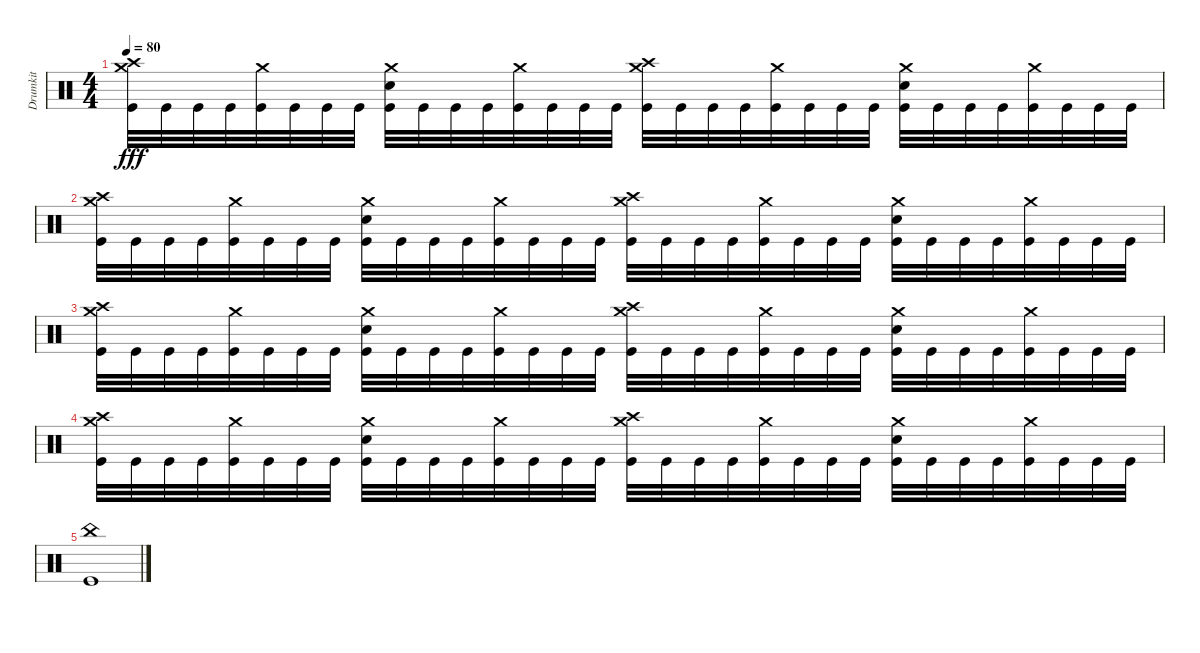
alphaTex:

\track ("Drumkit" "Drumkit") {instrument percussion}
\staff {score}
\articulation defaults
\ts (4 4)
\tempo 80
\clef neutral
\ks c
("Kick (hit)" "Crash medium (hit)" "Crash high (hit)").32{dy fff} "Kick (hit)".32 "Kick (hit)".32 "Kick (hit)".32 ("Kick (hit)" "Crash medium (hit)").32 "Kick (hit)".32 "Kick (hit)".32 "Kick (hit)".32 ("Kick (hit)" "Crash medium (hit)" "Snare (hit) 2").32 "Kick (hit)".32 "Kick (hit)".32 "Kick (hit)".32 ("Kick (hit)" "Crash medium (hit)").32 "Kick (hit)".32 "Kick (hit)".32 "Kick (hit)".32 ("Kick (hit)" "Crash medium (hit)" "Crash high (hit)").32 "Kick (hit)".32 "Kick (hit)".32 "Kick (hit)".32 ("Kick (hit)" "Crash medium (hit)").32 "Kick (hit)".32 "Kick (hit)".32 "Kick (hit)".32 ("Kick (hit)" "Crash medium (hit)" "Snare (hit) 2").32 "Kick (hit)".32 "Kick (hit)".32 "Kick (hit)".32 ("Kick (hit)" "Crash medium (hit)").32 "Kick (hit)".32 "Kick (hit)".32 "Kick (hit)".32 |
("Kick (hit)" "Crash medium (hit)" "Crash high (hit)").32 "Kick (hit)".32 "Kick (hit)".32 "Kick (hit)".32 ("Kick (hit)" "Crash medium (hit)").32 "Kick (hit)".32 "Kick (hit)".32 "Kick (hit)".32 ("Kick (hit)" "Crash medium (hit)" "Snare (hit) 2").32 "Kick (hit)".32 "Kick (hit)".32 "Kick (hit)".32 ("Kick (hit)" "Crash medium (hit)").32 "Kick (hit)".32 "Kick (hit)".32 "Kick (hit)".32 ("Kick (hit)" "Crash medium (hit)" "Crash high (hit)").32 "Kick (hit)".32 "Kick (hit)".32 "Kick (hit)".32 ("Kick (hit)" "Crash medium (hit)").32 "Kick (hit)".32 "Kick (hit)".32 "Kick (hit)".32 ("Kick (hit)" "Crash medium (hit)" "Snare (hit) 2").32 "Kick (hit)".32 "Kick (hit)".32 "Kick (hit)".32 ("Kick (hit)" "Crash medium (hit)").32 "Kick (hit)".32 "Kick (hit)".32 "Kick (hit)".32 |
("Kick (hit)" "Crash medium (hit)" "Crash high (hit)").32 "Kick (hit)".32 "Kick (hit)".32 "Kick (hit)".32 ("Kick (hit)" "Crash medium (hit)").32 "Kick (hit)".32 "Kick (hit)".32 "Kick (hit)".32 ("Kick (hit)" "Crash medium (hit)" "Snare (hit) 2").32 "Kick (hit)".32 "Kick (hit)".32 "Kick (hit)".32 ("Kick (hit)" "Crash medium (hit)").32 "Kick (hit)".32 "Kick (hit)".32 "Kick (hit)".32 ("Kick (hit)" "Crash medium (hit)" "Crash high (hit)").32 "Kick (hit)".32 "Kick (hit)".32 "Kick (hit)".32 ("Kick (hit)" "Crash medium (hit)").32 "Kick (hit)".32 "Kick (hit)".32 "Kick (hit)".32 ("Kick (hit)" "Crash medium (hit)" "Snare (hit) 2").32 "Kick (hit)".32 "Kick (hit)".32 "Kick (hit)".32 ("Kick (hit)" "Crash medium (hit)").32 "Kick (hit)".32 "Kick (hit)".32 "Kick (hit)".32 |
("Kick (hit)" "Crash medium (hit)" "Crash high (hit)").32 "Kick (hit)".32 "Kick (hit)".32 "Kick (hit)".32 ("Kick (hit)" "Crash medium (hit)").32 "Kick (hit)".32 "Kick (hit)".32 "Kick (hit)".32 ("Kick (hit)" "Crash medium (hit)" "Snare (hit) 2").32 "Kick (hit)".32 "Kick (hit)".32 "Kick (hit)".32 ("Kick (hit)" "Crash medium (hit)").32 "Kick (hit)".32 "Kick (hit)".32 "Kick (hit)".32 ("Kick (hit)" "Crash medium (hit)" "Crash high (hit)").32 "Kick (hit)".32 "Kick (hit)".32 "Kick (hit)".32 ("Kick (hit)" "Crash medium (hit)").32 "Kick (hit)".32 "Kick (hit)".32 "Kick (hit)".32 ("Kick (hit)" "Crash medium (hit)" "Snare (hit) 2").32 "Kick (hit)".32 "Kick (hit)".32 "Kick (hit)".32 ("Kick (hit)" "Crash medium (hit)").32 "Kick (hit)".32 "Kick (hit)".32 "Kick (hit)".32 |
("Kick (hit)" "China (hit)").1
